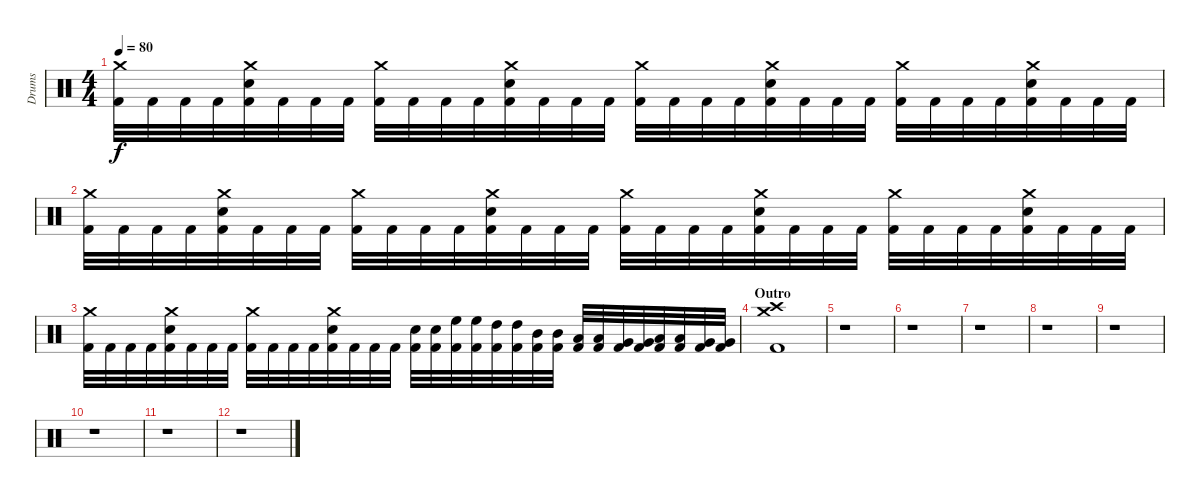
\track ("Drums" "Drums") {instrument percussion}
\staff {score}
\articulation defaults
\ts (4 4)
\tempo 80
\clef neutral
\ks c
("Crash medium (hit)" "Kick (hit) 2").32{dy f} "Kick (hit) 2".32 "Kick (hit) 2".32 "Kick (hit) 2".32 ("Crash medium (hit)" "Electric Snare (hit)" "Kick (hit) 2").32 "Kick (hit) 2".32 "Kick (hit) 2".32 "Kick (hit) 2".32 ("Crash medium (hit)" "Kick (hit) 2").32 "Kick (hit) 2".32 "Kick (hit) 2".32 "Kick (hit) 2".32 ("Crash medium (hit)" "Electric Snare (hit)" "Kick (hit) 2").32 "Kick (hit) 2".32 "Kick (hit) 2".32 "Kick (hit) 2".32 ("Crash medium (hit)" "Kick (hit) 2").32 "Kick (hit) 2".32 "Kick (hit) 2".32 "Kick (hit) 2".32 ("Crash medium (hit)" "Electric Snare (hit)" "Kick (hit) 2").32 "Kick (hit) 2".32 "Kick (hit) 2".32 "Kick (hit) 2".32 ("Crash medium (hit)" "Kick (hit) 2").32 "Kick (hit) 2".32 "Kick (hit) 2".32 "Kick (hit) 2".32 ("Crash medium (hit)" "Electric Snare (hit)" "Kick (hit) 2").32 "Kick (hit) 2".32 "Kick (hit) 2".32 "Kick (hit) 2".32 |
("Crash medium (hit)" "Kick (hit) 2").32 "Kick (hit) 2".32 "Kick (hit) 2".32 "Kick (hit) 2".32 ("Crash medium (hit)" "Electric Snare (hit)" "Kick (hit) 2").32 "Kick (hit) 2".32 "Kick (hit) 2".32 "Kick (hit) 2".32 ("Crash medium (hit)" "Kick (hit) 2").32 "Kick (hit) 2".32 "Kick (hit) 2".32 "Kick (hit) 2".32 ("Crash medium (hit)" "Electric Snare (hit)" "Kick (hit) 2").32 "Kick (hit) 2".32 "Kick (hit) 2".32 "Kick (hit) 2".32 ("Crash medium (hit)" "Kick (hit) 2").32 "Kick (hit) 2".32 "Kick (hit) 2".32 "Kick (hit) 2".32 ("Crash medium (hit)" "Electric Snare (hit)" "Kick (hit) 2").32 "Kick (hit) 2".32 "Kick (hit) 2".32 "Kick (hit) 2".32 ("Crash medium (hit)" "Kick (hit) 2").32 "Kick (hit) 2".32 "Kick (hit) 2".32 "Kick (hit) 2".32 ("Crash medium (hit)" "Electric Snare (hit)" "Kick (hit) 2").32 "Kick (hit) 2".32 "Kick (hit) 2".32 "Kick (hit) 2".32 |
("Crash medium (hit)" "Kick (hit) 2").32 "Kick (hit) 2".32 "Kick (hit) 2".32 "Kick (hit) 2".32 ("Crash medium (hit)" "Electric Snare (hit)" "Kick (hit) 2").32 "Kick (hit) 2".32 "Kick (hit) 2".32 "Kick (hit) 2".32 ("Crash medium (hit)" "Kick (hit) 2").32 "Kick (hit) 2".32 "Kick (hit) 2".32 "Kick (hit) 2".32 ("Crash medium (hit)" "Electric Snare (hit)" "Kick (hit) 2").32 "Kick (hit) 2".32 "Kick (hit) 2".32 "Kick (hit) 2".32 ("Electric Snare (hit)" "Kick (hit) 2").32 ("Electric Snare (hit)" "Kick (hit) 2").32 ("High Floor Tom (hit)" "Kick (hit) 2").32 ("High Floor Tom (hit)" "Kick (hit) 2").32 ("High Tom (hit)" "Kick (hit) 2").32 ("High Tom (hit)" "Kick (hit) 2").32 ("Mid Tom (hit)" "Kick (hit) 2").32 ("Mid Tom (hit)" "Kick (hit) 2").32 ("Low Tom (hit)" "Kick (hit) 2").32 ("Low Tom (hit)" "Kick (hit) 2").32 ("Very Low Tom (hit)" "Kick (hit) 2").32 ("Very Low Tom (hit)" "Kick (hit) 2").32 ("Low Floor Tom (hit)" "Kick (hit) 2").32 ("Low Floor Tom (hit)" "Kick (hit) 2").32 ("Very Low Tom (hit)" "Kick (hit) 2").32 ("Very Low Tom (hit)" "Kick (hit) 2").32 |
\section ("" "Outro")
("Kick (hit) 2" "Crash high (hit)" "Crash medium (hit)").1 |
r.1 |
r.1 |
r.1 |
r.1 |
r.1 |
r.1 |
r.1 |
r.1
